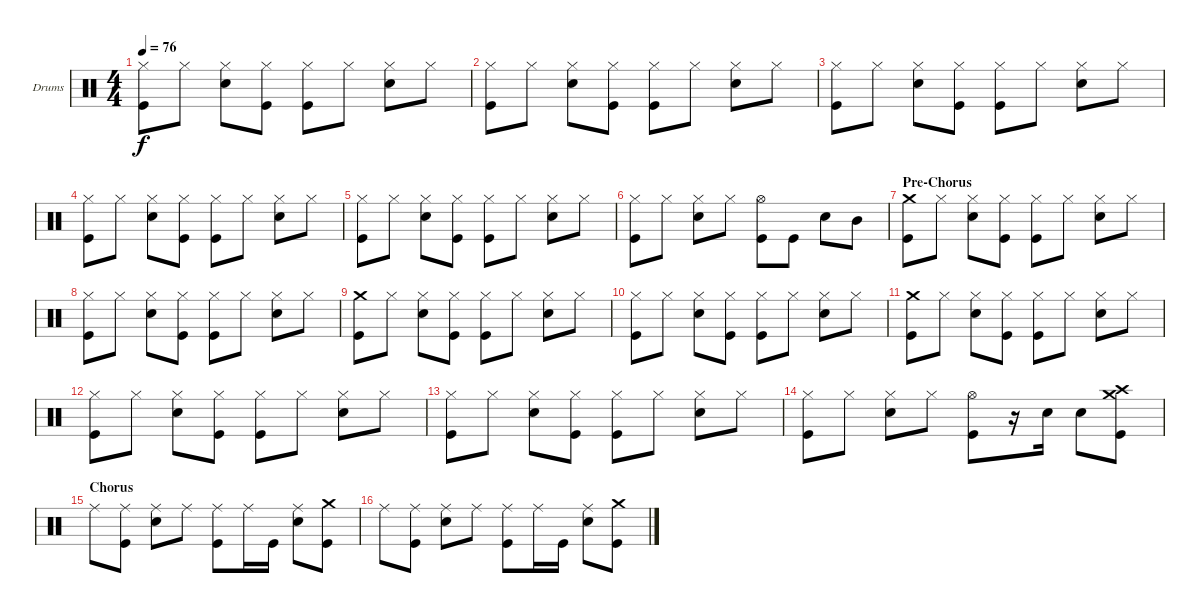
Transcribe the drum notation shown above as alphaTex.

\defaultSystemsLayout 4
\bracketExtendMode nobrackets
\firstSystemTrackNameOrientation horizontal
\otherSystemsTrackNameOrientation horizontal
\track ("Dave Krusen" "Drums") {instrument percussion}
\staff {score}
\articulation defaults
\ts (4 4)
\tempo 76
\clef neutral
\ks c
("Kick (hit)" "Hi-Hat (closed)").8{dy f} "Hi-Hat (closed)".8 ("Snare (hit) 2" "Hi-Hat (closed)").8 ("Kick (hit)" "Hi-Hat (closed)").8 ("Kick (hit)" "Hi-Hat (closed)").8 "Hi-Hat (closed)".8 ("Snare (hit) 2" "Hi-Hat (closed)").8 "Hi-Hat (closed)".8 |
("Kick (hit)" "Hi-Hat (closed)").8 "Hi-Hat (closed)".8 ("Snare (hit) 2" "Hi-Hat (closed)").8 ("Kick (hit)" "Hi-Hat (closed)").8 ("Kick (hit)" "Hi-Hat (closed)").8 "Hi-Hat (closed)".8 ("Snare (hit) 2" "Hi-Hat (closed)").8 "Hi-Hat (closed)".8 |
("Kick (hit)" "Hi-Hat (closed)").8 "Hi-Hat (closed)".8 ("Snare (hit) 2" "Hi-Hat (closed)").8 ("Kick (hit)" "Hi-Hat (closed)").8 ("Kick (hit)" "Hi-Hat (closed)").8 "Hi-Hat (closed)".8 ("Snare (hit) 2" "Hi-Hat (closed)").8 "Hi-Hat (closed)".8 |
("Kick (hit)" "Hi-Hat (closed)").8 "Hi-Hat (closed)".8 ("Snare (hit) 2" "Hi-Hat (closed)").8 ("Kick (hit)" "Hi-Hat (closed)").8 ("Kick (hit)" "Hi-Hat (closed)").8 "Hi-Hat (closed)".8 ("Snare (hit) 2" "Hi-Hat (closed)").8 "Hi-Hat (closed)".8 |
("Kick (hit)" "Hi-Hat (closed)").8 "Hi-Hat (closed)".8 ("Snare (hit) 2" "Hi-Hat (closed)").8 ("Kick (hit)" "Hi-Hat (closed)").8 ("Kick (hit)" "Hi-Hat (closed)").8 "Hi-Hat (closed)".8 ("Snare (hit) 2" "Hi-Hat (closed)").8 "Hi-Hat (closed)".8 |
("Kick (hit)" "Hi-Hat (closed)").8 "Hi-Hat (closed)".8 ("Snare (hit) 2" "Hi-Hat (closed)").8 "Hi-Hat (closed)".8 ("Kick (hit)" "Hi-Hat (open)").8 "Kick (hit)".8 "Snare (hit) 2".8 "Mid Tom (hit)".8 |
\section ("" "Pre-Chorus")
("Kick (hit)" "Crash medium (hit)").8 "Hi-Hat (closed)".8 ("Snare (hit) 2" "Hi-Hat (closed)").8 ("Kick (hit)" "Hi-Hat (closed)").8 ("Kick (hit)" "Hi-Hat (closed)").8 "Hi-Hat (closed)".8 ("Snare (hit) 2" "Hi-Hat (closed)").8 "Hi-Hat (closed)".8 |
("Kick (hit)" "Hi-Hat (closed)").8 "Hi-Hat (closed)".8 ("Snare (hit) 2" "Hi-Hat (closed)").8 ("Kick (hit)" "Hi-Hat (closed)").8 ("Kick (hit)" "Hi-Hat (closed)").8 "Hi-Hat (closed)".8 ("Snare (hit) 2" "Hi-Hat (closed)").8 "Hi-Hat (closed)".8 |
("Kick (hit)" "Crash medium (hit)").8 "Hi-Hat (closed)".8 ("Snare (hit) 2" "Hi-Hat (closed)").8 ("Kick (hit)" "Hi-Hat (closed)").8 ("Kick (hit)" "Hi-Hat (closed)").8 "Hi-Hat (closed)".8 ("Snare (hit) 2" "Hi-Hat (closed)").8 "Hi-Hat (closed)".8 |
("Kick (hit)" "Hi-Hat (closed)").8 "Hi-Hat (closed)".8 ("Snare (hit) 2" "Hi-Hat (closed)").8 ("Kick (hit)" "Hi-Hat (closed)").8 ("Kick (hit)" "Hi-Hat (closed)").8 "Hi-Hat (closed)".8 ("Snare (hit) 2" "Hi-Hat (closed)").8 "Hi-Hat (closed)".8 |
("Kick (hit)" "Crash medium (hit)").8 "Hi-Hat (closed)".8 ("Snare (hit) 2" "Hi-Hat (closed)").8 ("Kick (hit)" "Hi-Hat (closed)").8 ("Kick (hit)" "Hi-Hat (closed)").8 "Hi-Hat (closed)".8 ("Snare (hit) 2" "Hi-Hat (closed)").8 "Hi-Hat (closed)".8 |
("Kick (hit)" "Hi-Hat (closed)").8 "Hi-Hat (closed)".8 ("Snare (hit) 2" "Hi-Hat (closed)").8 ("Kick (hit)" "Hi-Hat (closed)").8 ("Kick (hit)" "Hi-Hat (closed)").8 "Hi-Hat (closed)".8 ("Snare (hit) 2" "Hi-Hat (closed)").8 "Hi-Hat (closed)".8 |
("Kick (hit)" "Hi-Hat (closed)").8 "Hi-Hat (closed)".8 ("Snare (hit) 2" "Hi-Hat (closed)").8 ("Kick (hit)" "Hi-Hat (closed)").8 ("Kick (hit)" "Hi-Hat (closed)").8 "Hi-Hat (closed)".8 ("Snare (hit) 2" "Hi-Hat (closed)").8 "Hi-Hat (closed)".8 |
("Kick (hit)" "Hi-Hat (closed)").8 "Hi-Hat (closed)".8 ("Snare (hit) 2" "Hi-Hat (closed)").8 "Hi-Hat (closed)".8 ("Kick (hit)" "Hi-Hat (open)").8 r.16 "Snare (hit) 2".16 "Snare (hit) 2".8 ("Crash high (hit)" "Kick (hit)" "Crash medium (hit)").8 |
\section ("" "Chorus")
"Ride (middle)".8 ("Kick (hit)" "Ride (middle)").8 ("Snare (hit) 2" "Ride (middle)").8 "Ride (middle)".8 ("Kick (hit)" "Ride (middle)").8 "Ride (middle)".16 "Kick (hit)".16 ("Snare (hit) 2" "Ride (middle)").8 ("Kick (hit)" "Crash medium (hit)").8 |
"Ride (middle)".8 ("Kick (hit)" "Ride (middle)").8 ("Snare (hit) 2" "Ride (middle)").8 "Ride (middle)".8 ("Kick (hit)" "Ride (middle)").8 "Ride (middle)".16 "Kick (hit)".16 ("Snare (hit) 2" "Ride (middle)").8 ("Kick (hit)" "Crash medium (hit)").8
